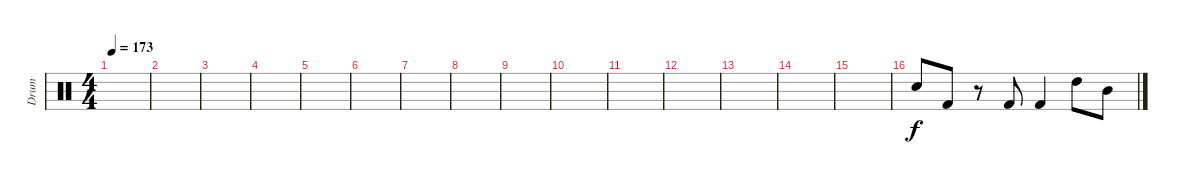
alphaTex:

\track ("Drum" "Drum") {instrument percussion}
\staff {score}
\articulation defaults
\ts (4 4)
\tempo 173
\clef neutral
\ks c
|
|
|
|
|
|
|
|
|
|
|
|
|
|
|
"Electric Snare (hit)".8{dy f} "Kick (hit) 2".8 r.8 "Kick (hit) 2".8 "Kick (hit) 2".4 "High Tom (hit)".8 "Mid Tom (hit)".8
